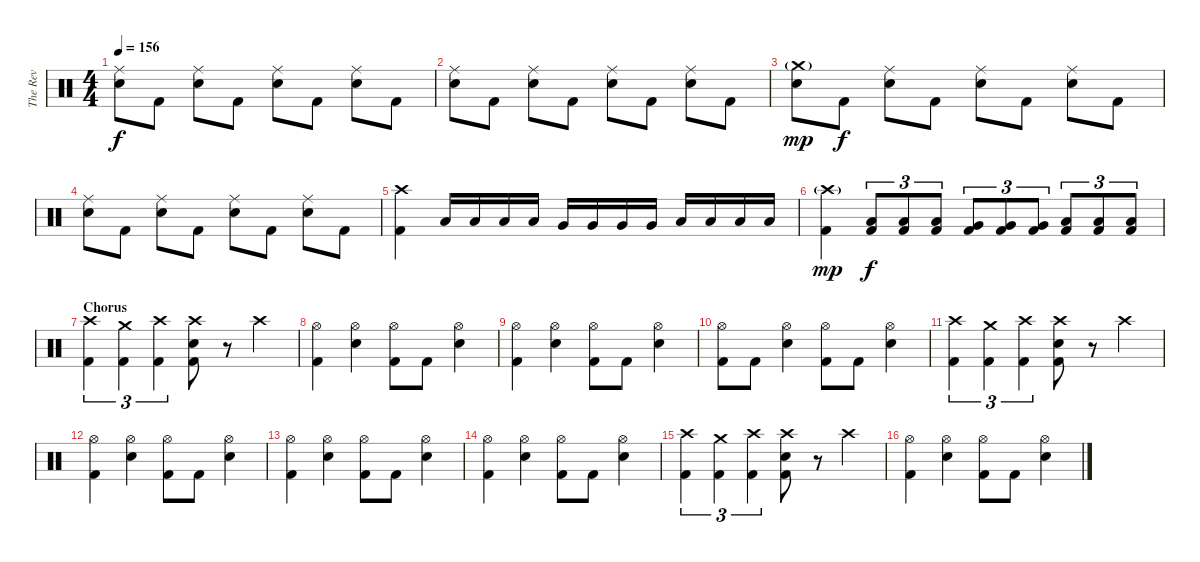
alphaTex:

\track ("The Rev" "The Rev") {instrument percussion}
\staff {score}
\articulation defaults
\ts (4 4)
\tempo 156
\clef neutral
\ks c
("Ride (middle)" "Electric Snare (hit)").8{dy f} "Kick (hit) 2".8 ("Ride (middle)" "Electric Snare (hit)").8 "Kick (hit) 2".8 ("Ride (middle)" "Electric Snare (hit)").8 "Kick (hit) 2".8 ("Ride (middle)" "Electric Snare (hit)").8 "Kick (hit) 2".8 |
("Ride (middle)" "Electric Snare (hit)").8 "Kick (hit) 2".8 ("Ride (middle)" "Electric Snare (hit)").8 "Kick (hit) 2".8 ("Ride (middle)" "Electric Snare (hit)").8 "Kick (hit) 2".8 ("Ride (middle)" "Electric Snare (hit)").8 "Kick (hit) 2".8 |
("Crash medium (hit)"{g} "Electric Snare (hit)").8{dy mp} "Kick (hit) 2".8{dy f} ("Ride (middle)" "Electric Snare (hit)").8 "Kick (hit) 2".8 ("Ride (middle)" "Electric Snare (hit)").8 "Kick (hit) 2".8 ("Ride (middle)" "Electric Snare (hit)").8 "Kick (hit) 2".8 |
("Ride (middle)" "Electric Snare (hit)").8 "Kick (hit) 2".8 ("Ride (middle)" "Electric Snare (hit)").8 "Kick (hit) 2".8 ("Ride (middle)" "Electric Snare (hit)").8 "Kick (hit) 2".8 ("Ride (middle)" "Electric Snare (hit)").8 "Kick (hit) 2".8 |
("Crash high (hit)" "Kick (hit) 2").4 "Low Tom (hit)".16 "Low Tom (hit)".16 "Low Tom (hit)".16 "Low Tom (hit)".16 "Very Low Tom (hit)".16 "Very Low Tom (hit)".16 "Very Low Tom (hit)".16 "Very Low Tom (hit)".16 "Low Floor Tom (hit)".16 "Low Floor Tom (hit)".16 "Low Floor Tom (hit)".16 "Low Floor Tom (hit)".16 |
("Crash high (hit)"{g} "Kick (hit) 2").4{dy mp} ("Low Tom (hit)" "Kick (hit) 2").8{tu (3 2) dy f} ("Low Tom (hit)" "Kick (hit) 2").8{tu (3 2)} ("Low Tom (hit)" "Kick (hit) 2").8{tu (3 2)} ("Very Low Tom (hit)" "Kick (hit) 2").8{tu (3 2)} ("Very Low Tom (hit)" "Kick (hit) 2").8{tu (3 2)} ("Very Low Tom (hit)" "Kick (hit) 2").8{tu (3 2)} ("Low Floor Tom (hit)" "Kick (hit) 2").8{tu (3 2)} ("Low Floor Tom (hit)" "Kick (hit) 2").8{tu (3 2)} ("Low Floor Tom (hit)" "Kick (hit) 2").8{tu (3 2)} |
\section ("" "Chorus")
("Crash high (hit)" "Kick (hit) 2").4{tu (3 2)} ("Crash medium (hit)" "Kick (hit) 2").4{tu (3 2)} ("Crash high (hit)" "Kick (hit) 2").4{tu (3 2)} ("Crash high (hit)" "Electric Snare (hit)" "Kick (hit) 2").8 r.8 "Crash high (hit)".4 |
("Hi-Hat (open)" "Kick (hit) 2").4 ("Hi-Hat (open)" "Electric Snare (hit)").4 ("Hi-Hat (open)" "Kick (hit) 2").8 "Kick (hit) 2".8 ("Hi-Hat (open)" "Electric Snare (hit)").4 |
("Hi-Hat (open)" "Kick (hit) 2").4 ("Hi-Hat (open)" "Electric Snare (hit)").4 ("Hi-Hat (open)" "Kick (hit) 2").8 "Kick (hit) 2".8 ("Hi-Hat (open)" "Electric Snare (hit)").4 |
("Hi-Hat (open)" "Kick (hit) 2").8 "Kick (hit) 2".8 ("Hi-Hat (open)" "Electric Snare (hit)").4 ("Hi-Hat (open)" "Kick (hit) 2").8 "Kick (hit) 2".8 ("Hi-Hat (open)" "Electric Snare (hit)").4 |
("Crash high (hit)" "Kick (hit) 2").4{tu (3 2)} ("Crash medium (hit)" "Kick (hit) 2").4{tu (3 2)} ("Crash high (hit)" "Kick (hit) 2").4{tu (3 2)} ("Crash high (hit)" "Electric Snare (hit)" "Kick (hit) 2").8 r.8 "Crash high (hit)".4 |
("Hi-Hat (open)" "Kick (hit) 2").4 ("Hi-Hat (open)" "Electric Snare (hit)").4 ("Hi-Hat (open)" "Kick (hit) 2").8 "Kick (hit) 2".8 ("Hi-Hat (open)" "Electric Snare (hit)").4 |
("Hi-Hat (open)" "Kick (hit) 2").4 ("Hi-Hat (open)" "Electric Snare (hit)").4 ("Hi-Hat (open)" "Kick (hit) 2").8 "Kick (hit) 2".8 ("Hi-Hat (open)" "Electric Snare (hit)").4 |
("Hi-Hat (open)" "Kick (hit) 2").4 ("Hi-Hat (open)" "Electric Snare (hit)").4 ("Hi-Hat (open)" "Kick (hit) 2").8 "Kick (hit) 2".8 ("Hi-Hat (open)" "Electric Snare (hit)").4 |
("Crash high (hit)" "Kick (hit) 2").4{tu (3 2)} ("Crash medium (hit)" "Kick (hit) 2").4{tu (3 2)} ("Crash high (hit)" "Kick (hit) 2").4{tu (3 2)} ("Crash high (hit)" "Electric Snare (hit)" "Kick (hit) 2").8 r.8 "Crash high (hit)".4 |
("Hi-Hat (open)" "Kick (hit) 2").4 ("Hi-Hat (open)" "Electric Snare (hit)").4 ("Hi-Hat (open)" "Kick (hit) 2").8 "Kick (hit) 2".8 ("Hi-Hat (open)" "Electric Snare (hit)").4
